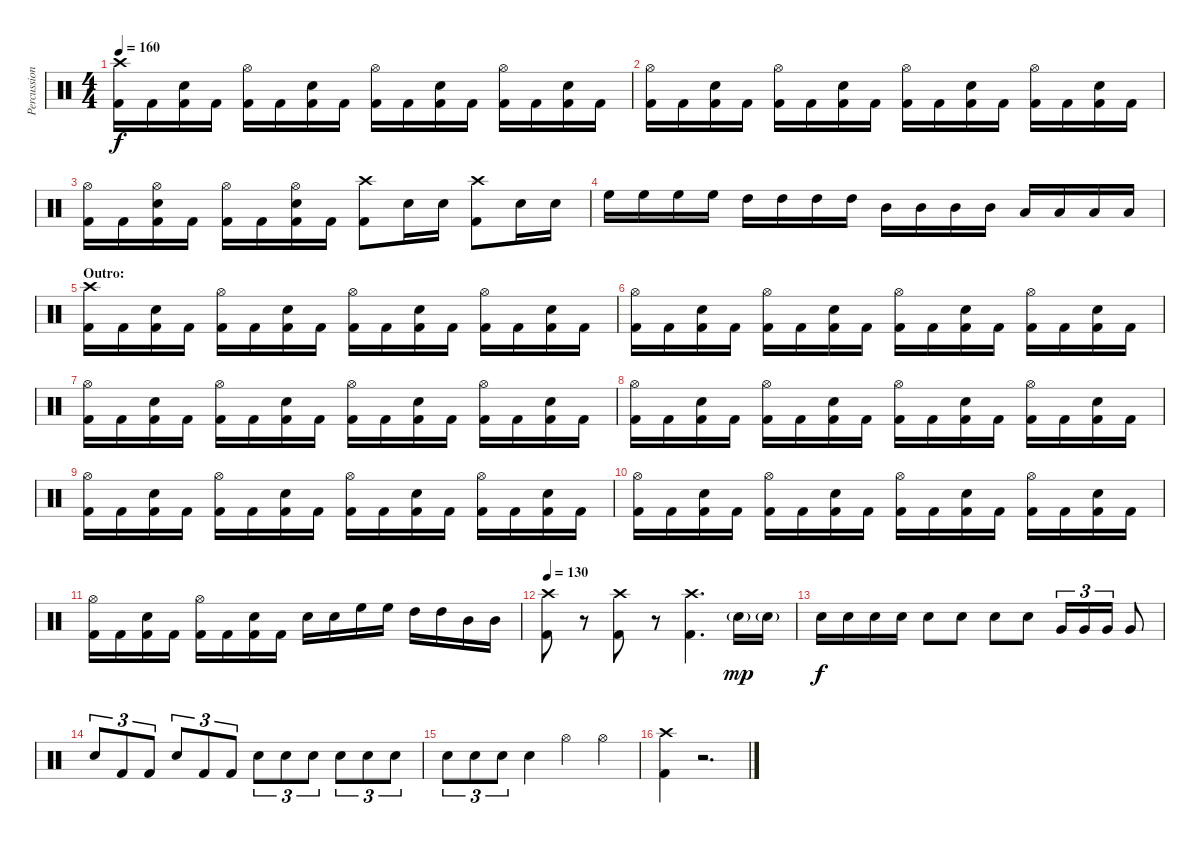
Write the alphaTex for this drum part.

\track ("Percussion" "Percussion") {instrument percussion}
\staff {score}
\articulation defaults
\ts (4 4)
\tempo 160
\clef neutral
\ks c
("Crash high (hit)" "Kick (hit) 2").16{dy f} "Kick (hit) 2".16 ("Snare (hit) 2" "Kick (hit) 2").16 "Kick (hit) 2".16 ("Hi-Hat (open)" "Kick (hit) 2").16 "Kick (hit) 2".16 ("Snare (hit) 2" "Kick (hit) 2").16 "Kick (hit) 2".16 ("Hi-Hat (open)" "Kick (hit) 2").16 "Kick (hit) 2".16 ("Snare (hit) 2" "Kick (hit) 2").16 "Kick (hit) 2".16 ("Hi-Hat (open)" "Kick (hit) 2").16 "Kick (hit) 2".16 ("Snare (hit) 2" "Kick (hit) 2").16 "Kick (hit) 2".16 |
("Hi-Hat (open)" "Kick (hit) 2").16 "Kick (hit) 2".16 ("Snare (hit) 2" "Kick (hit) 2").16 "Kick (hit) 2".16 ("Hi-Hat (open)" "Kick (hit) 2").16 "Kick (hit) 2".16 ("Snare (hit) 2" "Kick (hit) 2").16 "Kick (hit) 2".16 ("Hi-Hat (open)" "Kick (hit) 2").16 "Kick (hit) 2".16 ("Snare (hit) 2" "Kick (hit) 2").16 "Kick (hit) 2".16 ("Hi-Hat (open)" "Kick (hit) 2").16 "Kick (hit) 2".16 ("Snare (hit) 2" "Kick (hit) 2").16 "Kick (hit) 2".16 |
("Hi-Hat (open)" "Kick (hit) 2").16 "Kick (hit) 2".16 ("Hi-Hat (open)" "Snare (hit) 2" "Kick (hit) 2").16 "Kick (hit) 2".16 ("Hi-Hat (open)" "Kick (hit) 2").16 "Kick (hit) 2".16 ("Hi-Hat (open)" "Snare (hit) 2" "Kick (hit) 2").16 "Kick (hit) 2".16 ("Crash high (hit)" "Kick (hit) 2").8 "Snare (hit) 2".16 "Snare (hit) 2".16 ("Crash high (hit)" "Kick (hit) 2").8 "Snare (hit) 2".16 "Snare (hit) 2".16 |
"High Floor Tom (hit)".16 "High Floor Tom (hit)".16 "High Floor Tom (hit)".16 "High Floor Tom (hit)".16 "High Tom (hit)".16 "High Tom (hit)".16 "High Tom (hit)".16 "High Tom (hit)".16 "Mid Tom (hit)".16 "Mid Tom (hit)".16 "Mid Tom (hit)".16 "Mid Tom (hit)".16 "Low Tom (hit)".16 "Low Tom (hit)".16 "Low Tom (hit)".16 "Low Tom (hit)".16 |
\section ("" "Outro:")
("Crash high (hit)" "Kick (hit) 2").16 "Kick (hit) 2".16 ("Snare (hit) 2" "Kick (hit) 2").16 "Kick (hit) 2".16 ("Hi-Hat (open)" "Kick (hit) 2").16 "Kick (hit) 2".16 ("Snare (hit) 2" "Kick (hit) 2").16 "Kick (hit) 2".16 ("Hi-Hat (open)" "Kick (hit) 2").16 "Kick (hit) 2".16 ("Snare (hit) 2" "Kick (hit) 2").16 "Kick (hit) 2".16 ("Hi-Hat (open)" "Kick (hit) 2").16 "Kick (hit) 2".16 ("Snare (hit) 2" "Kick (hit) 2").16 "Kick (hit) 2".16 |
("Hi-Hat (open)" "Kick (hit) 2").16 "Kick (hit) 2".16 ("Snare (hit) 2" "Kick (hit) 2").16 "Kick (hit) 2".16 ("Hi-Hat (open)" "Kick (hit) 2").16 "Kick (hit) 2".16 ("Snare (hit) 2" "Kick (hit) 2").16 "Kick (hit) 2".16 ("Hi-Hat (open)" "Kick (hit) 2").16 "Kick (hit) 2".16 ("Snare (hit) 2" "Kick (hit) 2").16 "Kick (hit) 2".16 ("Hi-Hat (open)" "Kick (hit) 2").16 "Kick (hit) 2".16 ("Snare (hit) 2" "Kick (hit) 2").16 "Kick (hit) 2".16 |
("Hi-Hat (open)" "Kick (hit) 2").16 "Kick (hit) 2".16 ("Snare (hit) 2" "Kick (hit) 2").16 "Kick (hit) 2".16 ("Hi-Hat (open)" "Kick (hit) 2").16 "Kick (hit) 2".16 ("Snare (hit) 2" "Kick (hit) 2").16 "Kick (hit) 2".16 ("Hi-Hat (open)" "Kick (hit) 2").16 "Kick (hit) 2".16 ("Snare (hit) 2" "Kick (hit) 2").16 "Kick (hit) 2".16 ("Hi-Hat (open)" "Kick (hit) 2").16 "Kick (hit) 2".16 ("Snare (hit) 2" "Kick (hit) 2").16 "Kick (hit) 2".16 |
("Hi-Hat (open)" "Kick (hit) 2").16 "Kick (hit) 2".16 ("Snare (hit) 2" "Kick (hit) 2").16 "Kick (hit) 2".16 ("Hi-Hat (open)" "Kick (hit) 2").16 "Kick (hit) 2".16 ("Snare (hit) 2" "Kick (hit) 2").16 "Kick (hit) 2".16 ("Hi-Hat (open)" "Kick (hit) 2").16 "Kick (hit) 2".16 ("Snare (hit) 2" "Kick (hit) 2").16 "Kick (hit) 2".16 ("Hi-Hat (open)" "Kick (hit) 2").16 "Kick (hit) 2".16 ("Snare (hit) 2" "Kick (hit) 2").16 "Kick (hit) 2".16 |
("Hi-Hat (open)" "Kick (hit) 2").16 "Kick (hit) 2".16 ("Snare (hit) 2" "Kick (hit) 2").16 "Kick (hit) 2".16 ("Hi-Hat (open)" "Kick (hit) 2").16 "Kick (hit) 2".16 ("Snare (hit) 2" "Kick (hit) 2").16 "Kick (hit) 2".16 ("Hi-Hat (open)" "Kick (hit) 2").16 "Kick (hit) 2".16 ("Snare (hit) 2" "Kick (hit) 2").16 "Kick (hit) 2".16 ("Hi-Hat (open)" "Kick (hit) 2").16 "Kick (hit) 2".16 ("Snare (hit) 2" "Kick (hit) 2").16 "Kick (hit) 2".16 |
("Hi-Hat (open)" "Kick (hit) 2").16 "Kick (hit) 2".16 ("Snare (hit) 2" "Kick (hit) 2").16 "Kick (hit) 2".16 ("Hi-Hat (open)" "Kick (hit) 2").16 "Kick (hit) 2".16 ("Snare (hit) 2" "Kick (hit) 2").16 "Kick (hit) 2".16 ("Hi-Hat (open)" "Kick (hit) 2").16 "Kick (hit) 2".16 ("Snare (hit) 2" "Kick (hit) 2").16 "Kick (hit) 2".16 ("Hi-Hat (open)" "Kick (hit) 2").16 "Kick (hit) 2".16 ("Snare (hit) 2" "Kick (hit) 2").16 "Kick (hit) 2".16 |
("Hi-Hat (open)" "Kick (hit) 2").16 "Kick (hit) 2".16 ("Snare (hit) 2" "Kick (hit) 2").16 "Kick (hit) 2".16 ("Hi-Hat (open)" "Kick (hit) 2").16 "Kick (hit) 2".16 ("Snare (hit) 2" "Kick (hit) 2").16 "Kick (hit) 2".16 "Snare (hit) 2".16 "Snare (hit) 2".16 "High Floor Tom (hit)".16 "High Floor Tom (hit)".16 "High Tom (hit)".16 "High Tom (hit)".16 "Mid Tom (hit)".16 "Mid Tom (hit)".16 |
\tempo 130
("Crash high (hit)" "Kick (hit) 2").8 r.8 ("Crash high (hit)" "Kick (hit) 2").8 r.8 ("Crash high (hit)" "Kick (hit) 2").4{d} "Snare (hit) 2"{g}.16{dy mp} "Snare (hit) 2"{g}.16 |
"Snare (hit) 2".16{dy f} "Snare (hit) 2".16 "Snare (hit) 2".16 "Snare (hit) 2".16 "Snare (hit) 2".8 "Snare (hit) 2".8 "Snare (hit) 2".8 "Snare (hit) 2".8 "Very Low Tom (hit)".16{tu (3 2)} "Very Low Tom (hit)".16{tu (3 2)} "Very Low Tom (hit)".16{tu (3 2)} "Very Low Tom (hit)".8 |
"Snare (hit) 2".8{tu (3 2)} "Kick (hit) 2".8{tu (3 2)} "Kick (hit) 2".8{tu (3 2)} "Snare (hit) 2".8{tu (3 2)} "Kick (hit) 2".8{tu (3 2)} "Kick (hit) 2".8{tu (3 2)} "Snare (hit) 2".8{tu (3 2)} "Snare (hit) 2".8{tu (3 2)} "Snare (hit) 2".8{tu (3 2)} "Snare (hit) 2".8{tu (3 2)} "Snare (hit) 2".8{tu (3 2)} "Snare (hit) 2".8{tu (3 2)} |
"Snare (hit) 2".8{tu (3 2)} "Snare (hit) 2".8{tu (3 2)} "Snare (hit) 2".8{tu (3 2)} "Snare (hit) 2".4 "Hi-Hat (open)".4 "Hi-Hat (open)".4 |
("Crash high (hit)" "Kick (hit) 2").4 r.2{d}
